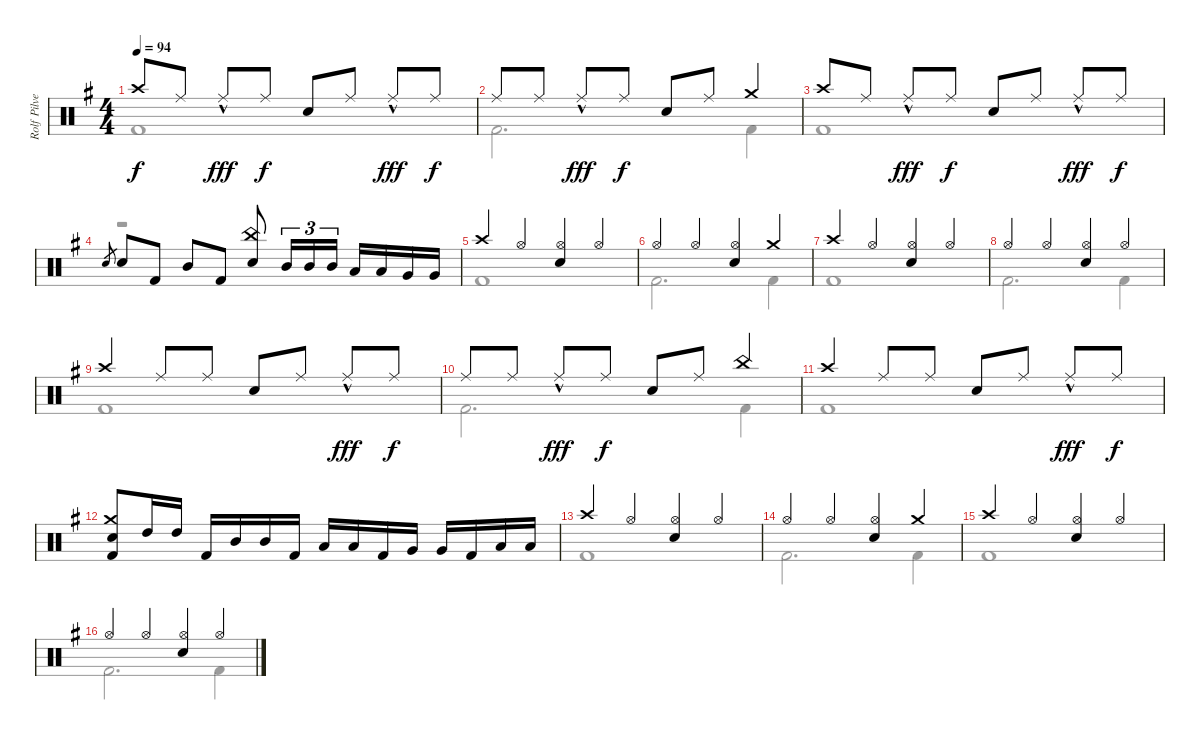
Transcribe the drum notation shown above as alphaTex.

\track ("Rolf Pilve - drums" "Rolf Pilve") {instrument percussion}
\staff {score}
\articulation defaults
\voice
\ts (4 4)
\tempo 94
\clef neutral
\ks eminor "Crash high (hit)".8{dy f} "Ride (middle)".8 "Ride (middle)"{hac}.8{dy fff} "Ride (middle)".8{dy f} "Snare (hit) 2".8 "Ride (middle)".8 "Ride (middle)"{hac}.8{dy fff} "Ride (middle)".8{dy f}
|
"Ride (middle)".8 "Ride (middle)".8 "Ride (middle)"{hac}.8{dy fff} "Ride (middle)".8{dy f} "Snare (hit) 2".8 "Ride (middle)".8 "Crash medium (hit)".4 |
"Crash high (hit)".8 "Ride (middle)".8 "Ride (middle)"{hac}.8{dy fff} "Ride (middle)".8{dy f} "Snare (hit) 2".8 "Ride (middle)".8 "Ride (middle)"{hac}.8{dy fff} "Ride (middle)".8{dy f} |
"Snare (hit) 2".8{gr} "Snare (hit) 2".8 "Kick (hit) 2".8 "Mid Tom (hit)".8 "Kick (hit) 2".8 ("China (hit)" "Snare (hit) 2").8 "Mid Tom (hit)".16{tu (3 2)} "Mid Tom (hit)".16{tu (3 2)} "Mid Tom (hit)".16{tu (3 2)} "Low Tom (hit)".16 "Low Tom (hit)".16 "Very Low Tom (hit)".16 "Very Low Tom (hit)".16 |
"Crash high (hit)".4 "Hi-Hat (open)".4 ("Hi-Hat (open)" "Snare (hit) 2").4 "Hi-Hat (open)".4 |
"Hi-Hat (open)".4 "Hi-Hat (open)".4 ("Hi-Hat (open)" "Snare (hit) 2").4 "Crash medium (hit)".4 |
"Crash high (hit)".4 "Hi-Hat (open)".4 ("Hi-Hat (open)" "Snare (hit) 2").4 "Hi-Hat (open)".4 |
"Hi-Hat (open)".4 "Hi-Hat (open)".4 ("Hi-Hat (open)" "Snare (hit) 2").4 "Hi-Hat (open)".4 |
"Crash high (hit)".4 "Ride (middle)".8 "Ride (middle)".8 "Snare (hit) 2".8 "Ride (middle)".8 "Ride (middle)"{hac}.8{dy fff} "Ride (middle)".8{dy f} |
"Ride (middle)".8 "Ride (middle)".8 "Ride (middle)"{hac}.8{dy fff} "Ride (middle)".8{dy f} "Snare (hit) 2".8 "Ride (middle)".8 "China (hit)".4 |
"Crash high (hit)".4 "Ride (middle)".8 "Ride (middle)".8 "Snare (hit) 2".8 "Ride (middle)".8 "Ride (middle)"{hac}.8{dy fff} "Ride (middle)".8{dy f} |
("Crash medium (hit)" "Snare (hit) 2" "Kick (hit) 2").8 "High Tom (hit)".16 "High Tom (hit)".16 "Kick (hit) 2".16 "Mid Tom (hit)".16 "Mid Tom (hit)".16 "Kick (hit) 2".16 "Low Tom (hit)".16 "Low Tom (hit)".16 "Kick (hit) 2".16 "Very Low Tom (hit)".16 "Very Low Tom (hit)".16 "Kick (hit) 2".16 "Low Floor Tom (hit)".16 "Low Floor Tom (hit)".16 |
"Crash high (hit)".4 "Hi-Hat (open)".4 ("Hi-Hat (open)" "Snare (hit) 2").4 "Hi-Hat (open)".4 |
"Hi-Hat (open)".4 "Hi-Hat (open)".4 ("Hi-Hat (open)" "Snare (hit) 2").4 "Crash medium (hit)".4 |
"Crash high (hit)".4 "Hi-Hat (open)".4 ("Hi-Hat (open)" "Snare (hit) 2").4 "Hi-Hat (open)".4 |
"Hi-Hat (open)".4 "Hi-Hat (open)".4 ("Hi-Hat (open)" "Snare (hit) 2").4 "Hi-Hat (open)".4
\voice
\clef neutral
\ottava regular
\simile none
\ks eminor "Kick (hit) 2".1{dy f}
|
"Kick (hit) 2".2{d} "Kick (hit) 2".4 |
"Kick (hit) 2".1 |
r.1 |
"Kick (hit) 2".1 |
"Kick (hit) 2".2{d} "Kick (hit) 2".4 |
"Kick (hit) 2".1 |
"Kick (hit) 2".2{d} "Kick (hit) 2".4 |
"Kick (hit) 2".1 |
"Kick (hit) 2".2{d} "Kick (hit) 2".4 |
"Kick (hit) 2".1 |
|
"Kick (hit) 2".1 |
"Kick (hit) 2".2{d} "Kick (hit) 2".4 |
"Kick (hit) 2".1 |
"Kick (hit) 2".2{d} "Kick (hit) 2".4
